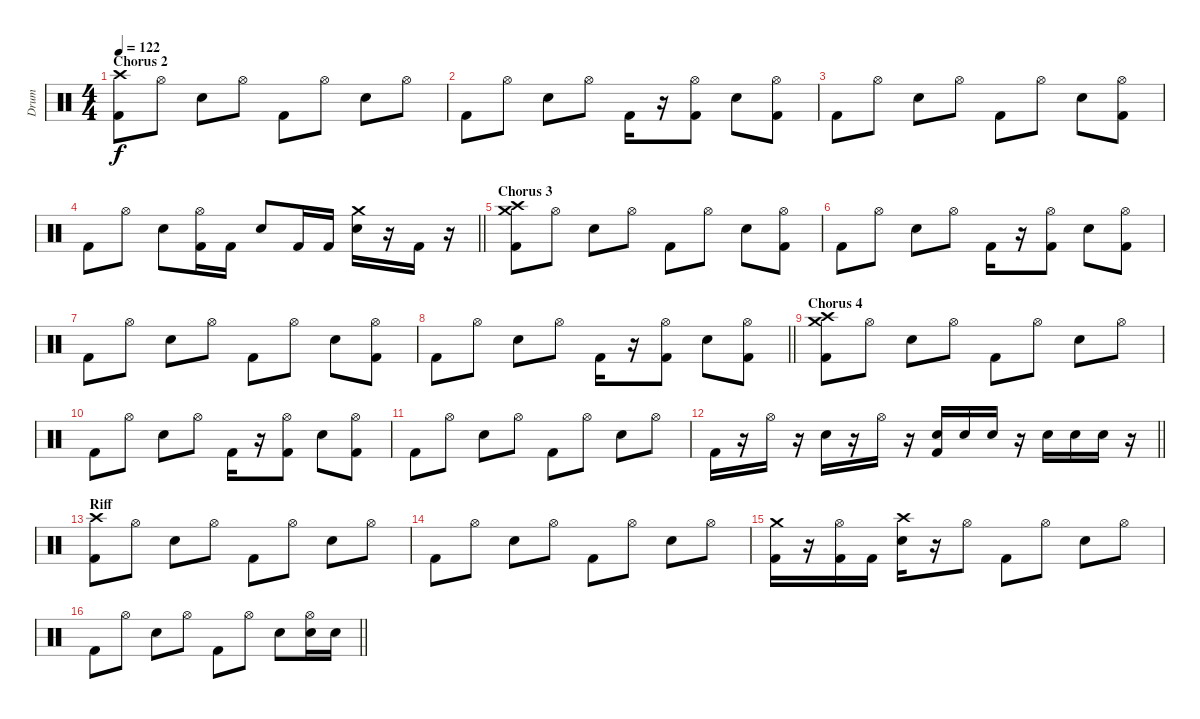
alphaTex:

\track ("Drum" "Drum") {instrument percussion}
\staff {score}
\articulation defaults
\ts (4 4)
\section ("" "Chorus 2")
\tempo 122
\clef neutral
\ks c
("Crash high (hit)" "Kick (hit) 2").8{dy f} "Hi-Hat (open)".8 "Snare (hit) 2".8 "Hi-Hat (open)".8 "Kick (hit) 2".8 "Hi-Hat (open)".8 "Snare (hit) 2".8 "Hi-Hat (open)".8 |
"Kick (hit) 2".8 "Hi-Hat (open)".8 "Snare (hit) 2".8 "Hi-Hat (open)".8 "Kick (hit) 2".16 r.16 ("Hi-Hat (open)" "Kick (hit) 2").8 "Snare (hit) 2".8 ("Hi-Hat (open)" "Kick (hit) 2").8 |
"Kick (hit) 2".8 "Hi-Hat (open)".8 "Snare (hit) 2".8 "Hi-Hat (open)".8 "Kick (hit) 2".8 "Hi-Hat (open)".8 "Snare (hit) 2".8 ("Hi-Hat (open)" "Kick (hit) 2").8 |
\barLineRight lightlight "Kick (hit) 2".8 "Hi-Hat (open)".8 "Snare (hit) 2".8
("Hi-Hat (open)" "Kick (hit) 2").16 "Kick (hit) 2".16 "Snare (hit) 2".8 "Kick (hit) 2".16 "Kick (hit) 2".16 ("Crash medium (hit)" "Snare (hit) 2").16 r.16 "Kick (hit) 2".16 r.16 |
\section ("" "Chorus 3")
("Crash high (hit)" "Crash medium (hit)" "Kick (hit) 2").8 "Hi-Hat (open)".8 "Snare (hit) 2".8 "Hi-Hat (open)".8 "Kick (hit) 2".8 "Hi-Hat (open)".8 "Snare (hit) 2".8 ("Hi-Hat (open)" "Kick (hit) 2").8 |
"Kick (hit) 2".8 "Hi-Hat (open)".8 "Snare (hit) 2".8 "Hi-Hat (open)".8 "Kick (hit) 2".16 r.16 ("Hi-Hat (open)" "Kick (hit) 2").8 "Snare (hit) 2".8 ("Hi-Hat (open)" "Kick (hit) 2").8 |
"Kick (hit) 2".8 "Hi-Hat (open)".8 "Snare (hit) 2".8 "Hi-Hat (open)".8 "Kick (hit) 2".8 "Hi-Hat (open)".8 "Snare (hit) 2".8 ("Hi-Hat (open)" "Kick (hit) 2").8 |
\barLineRight lightlight "Kick (hit) 2".8 "Hi-Hat (open)".8 "Snare (hit) 2".8 "Hi-Hat (open)".8 "Kick (hit) 2".16
r.16 ("Hi-Hat (open)" "Kick (hit) 2").8 "Snare (hit) 2".8 ("Hi-Hat (open)" "Kick (hit) 2").8 |
\section ("" "Chorus 4")
("Crash high (hit)" "Crash medium (hit)" "Kick (hit) 2").8 "Hi-Hat (open)".8 "Snare (hit) 2".8 "Hi-Hat (open)".8 "Kick (hit) 2".8 "Hi-Hat (open)".8 "Snare (hit) 2".8 "Hi-Hat (open)".8 |
"Kick (hit) 2".8 "Hi-Hat (open)".8 "Snare (hit) 2".8 "Hi-Hat (open)".8 "Kick (hit) 2".16 r.16 ("Hi-Hat (open)" "Kick (hit) 2").8 "Snare (hit) 2".8 ("Hi-Hat (open)" "Kick (hit) 2").8 |
"Kick (hit) 2".8 "Hi-Hat (open)".8 "Snare (hit) 2".8 "Hi-Hat (open)".8 "Kick (hit) 2".8 "Hi-Hat (open)".8 "Snare (hit) 2".8 "Hi-Hat (open)".8 |
\barLineRight lightlight "Kick (hit) 2".16
r.16 "Hi-Hat (open)".16 r.16 "Snare (hit) 2".16 r.16 "Hi-Hat (open)".16 r.16 ("Snare (hit) 2" "Kick (hit) 2").16 "Snare (hit) 2".16 "Snare (hit) 2".16 r.16 "Snare (hit) 2".16 "Snare (hit) 2".16 "Snare (hit) 2".16 r.16 |
\section ("" "Riff")
("Kick (hit) 2" "Crash high (hit)").8 "Hi-Hat (open)".8 "Snare (hit) 2".8 "Hi-Hat (open)".8 "Kick (hit) 2".8 "Hi-Hat (open)".8 "Snare (hit) 2".8 "Hi-Hat (open)".8 |
"Kick (hit) 2".8 "Hi-Hat (open)".8 "Snare (hit) 2".8 "Hi-Hat (open)".8 "Kick (hit) 2".8 "Hi-Hat (open)".8 "Snare (hit) 2".8 "Hi-Hat (open)".8 |
("Kick (hit) 2" "Crash medium (hit)").16 r.16 ("Kick (hit) 2" "Hi-Hat (open)").16 "Kick (hit) 2".16 ("Snare (hit) 2" "Crash high (hit)").16 r.16 "Hi-Hat (open)".8 "Kick (hit) 2".8 "Hi-Hat (open)".8 "Snare (hit) 2".8 "Hi-Hat (open)".8 |
\barLineRight lightlight "Kick (hit) 2".8 "Hi-Hat (open)".8 "Snare (hit) 2".8 "Hi-Hat (open)".8 "Kick (hit) 2".8 "Hi-Hat (open)".8 "Snare (hit) 2".8
("Snare (hit) 2" "Hi-Hat (open)").16 "Snare (hit) 2".16
